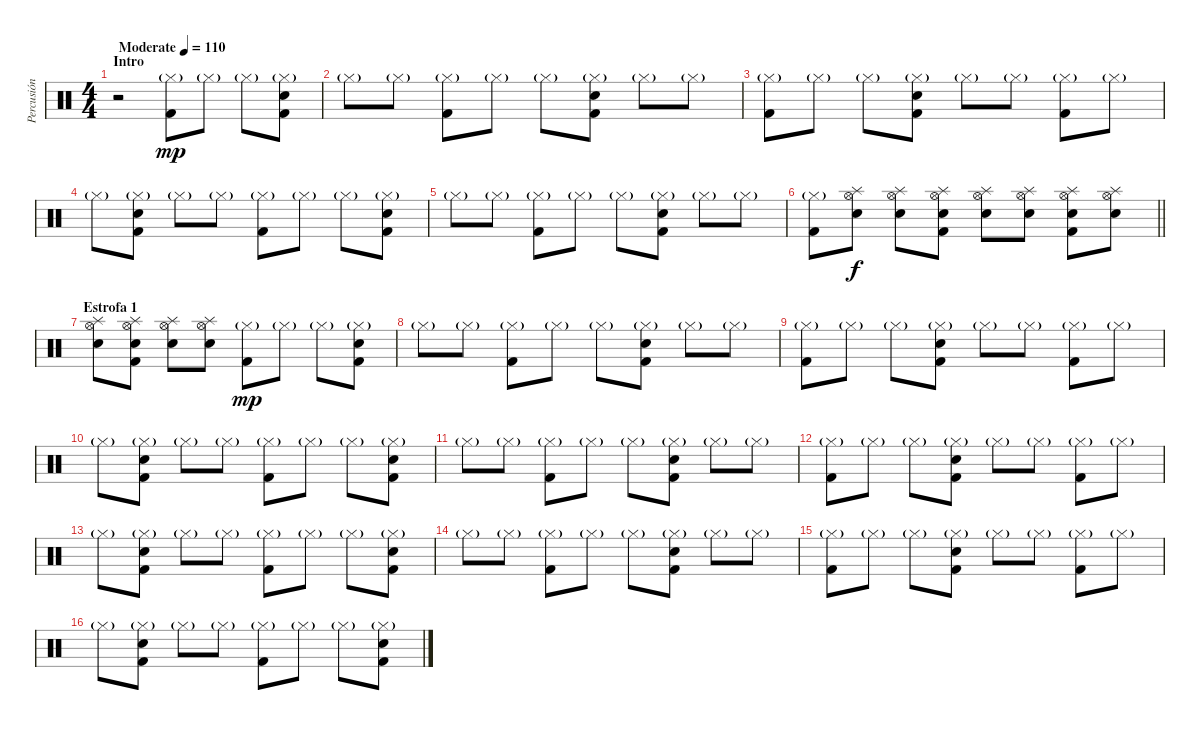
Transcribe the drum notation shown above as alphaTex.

\track ("Percusión" "Percusión") {instrument percussion}
\staff {score}
\articulation defaults
\ts (4 4)
\section ("" "Intro")
\tempo (110 "Moderate")
\clef neutral
\ks c
r.2{dy mp} ("Hi-Hat (closed)"{g} "Kick (hit) 2").8 "Hi-Hat (closed)"{g}.8 "Hi-Hat (closed)"{g}.8 ("Hi-Hat (closed)"{g} "Kick (hit) 2" "Snare (hit) 2").8 |
"Hi-Hat (closed)"{g}.8 "Hi-Hat (closed)"{g}.8 ("Hi-Hat (closed)"{g} "Kick (hit) 2").8 "Hi-Hat (closed)"{g}.8 "Hi-Hat (closed)"{g}.8 ("Hi-Hat (closed)"{g} "Kick (hit) 2" "Snare (hit) 2").8 "Hi-Hat (closed)"{g}.8 "Hi-Hat (closed)"{g}.8 |
("Hi-Hat (closed)"{g} "Kick (hit) 2").8 "Hi-Hat (closed)"{g}.8 "Hi-Hat (closed)"{g}.8 ("Hi-Hat (closed)"{g} "Kick (hit) 2" "Snare (hit) 2").8 "Hi-Hat (closed)"{g}.8 "Hi-Hat (closed)"{g}.8 ("Hi-Hat (closed)"{g} "Kick (hit) 2").8 "Hi-Hat (closed)"{g}.8 |
"Hi-Hat (closed)"{g}.8 ("Hi-Hat (closed)"{g} "Kick (hit) 2" "Snare (hit) 2").8 "Hi-Hat (closed)"{g}.8 "Hi-Hat (closed)"{g}.8 ("Hi-Hat (closed)"{g} "Kick (hit) 2").8 "Hi-Hat (closed)"{g}.8 "Hi-Hat (closed)"{g}.8 ("Hi-Hat (closed)"{g} "Kick (hit) 2" "Snare (hit) 2").8 |
"Hi-Hat (closed)"{g}.8 "Hi-Hat (closed)"{g}.8 ("Hi-Hat (closed)"{g} "Kick (hit) 2").8 "Hi-Hat (closed)"{g}.8 "Hi-Hat (closed)"{g}.8 ("Hi-Hat (closed)"{g} "Kick (hit) 2" "Snare (hit) 2").8 "Hi-Hat (closed)"{g}.8 "Hi-Hat (closed)"{g}.8 |
\barLineRight lightlight
("Hi-Hat (closed)"{g} "Kick (hit) 2").8 ("Hi-Hat (open)" "Splash (hit)" "Snare (hit) 2").8{dy f} ("Hi-Hat (open)" "Splash (hit)" "Snare (hit) 2").8 ("Hi-Hat (open)" "Kick (hit) 2" "Splash (hit)" "Snare (hit) 2").8 ("Hi-Hat (open)" "Splash (hit)" "Snare (hit) 2").8 ("Hi-Hat (open)" "Splash (hit)" "Snare (hit) 2").8 ("Hi-Hat (open)" "Kick (hit) 2" "Splash (hit)" "Snare (hit) 2").8 ("Hi-Hat (open)" "Splash (hit)" "Snare (hit) 2").8 |
\section ("" "Estrofa 1")
("Hi-Hat (open)" "Splash (hit)" "Snare (hit) 2").8 ("Hi-Hat (open)" "Kick (hit) 2" "Splash (hit)" "Snare (hit) 2").8 ("Hi-Hat (open)" "Splash (hit)" "Snare (hit) 2").8 ("Hi-Hat (open)" "Splash (hit)" "Snare (hit) 2").8 ("Hi-Hat (closed)"{g} "Kick (hit) 2").8{dy mp} "Hi-Hat (closed)"{g}.8 "Hi-Hat (closed)"{g}.8 ("Hi-Hat (closed)"{g} "Kick (hit) 2" "Snare (hit) 2").8 |
"Hi-Hat (closed)"{g}.8 "Hi-Hat (closed)"{g}.8 ("Hi-Hat (closed)"{g} "Kick (hit) 2").8 "Hi-Hat (closed)"{g}.8 "Hi-Hat (closed)"{g}.8 ("Hi-Hat (closed)"{g} "Kick (hit) 2" "Snare (hit) 2").8 "Hi-Hat (closed)"{g}.8 "Hi-Hat (closed)"{g}.8 |
("Hi-Hat (closed)"{g} "Kick (hit) 2").8 "Hi-Hat (closed)"{g}.8 "Hi-Hat (closed)"{g}.8 ("Hi-Hat (closed)"{g} "Kick (hit) 2" "Snare (hit) 2").8 "Hi-Hat (closed)"{g}.8 "Hi-Hat (closed)"{g}.8 ("Hi-Hat (closed)"{g} "Kick (hit) 2").8 "Hi-Hat (closed)"{g}.8 |
"Hi-Hat (closed)"{g}.8 ("Hi-Hat (closed)"{g} "Kick (hit) 2" "Snare (hit) 2").8 "Hi-Hat (closed)"{g}.8 "Hi-Hat (closed)"{g}.8 ("Hi-Hat (closed)"{g} "Kick (hit) 2").8 "Hi-Hat (closed)"{g}.8 "Hi-Hat (closed)"{g}.8 ("Hi-Hat (closed)"{g} "Kick (hit) 2" "Snare (hit) 2").8 |
"Hi-Hat (closed)"{g}.8 "Hi-Hat (closed)"{g}.8 ("Hi-Hat (closed)"{g} "Kick (hit) 2").8 "Hi-Hat (closed)"{g}.8 "Hi-Hat (closed)"{g}.8 ("Hi-Hat (closed)"{g} "Kick (hit) 2" "Snare (hit) 2").8 "Hi-Hat (closed)"{g}.8 "Hi-Hat (closed)"{g}.8 |
("Hi-Hat (closed)"{g} "Kick (hit) 2").8 "Hi-Hat (closed)"{g}.8 "Hi-Hat (closed)"{g}.8 ("Hi-Hat (closed)"{g} "Kick (hit) 2" "Snare (hit) 2").8 "Hi-Hat (closed)"{g}.8 "Hi-Hat (closed)"{g}.8 ("Hi-Hat (closed)"{g} "Kick (hit) 2").8 "Hi-Hat (closed)"{g}.8 |
"Hi-Hat (closed)"{g}.8 ("Hi-Hat (closed)"{g} "Kick (hit) 2" "Snare (hit) 2").8 "Hi-Hat (closed)"{g}.8 "Hi-Hat (closed)"{g}.8 ("Hi-Hat (closed)"{g} "Kick (hit) 2").8 "Hi-Hat (closed)"{g}.8 "Hi-Hat (closed)"{g}.8 ("Hi-Hat (closed)"{g} "Kick (hit) 2" "Snare (hit) 2").8 |
"Hi-Hat (closed)"{g}.8 "Hi-Hat (closed)"{g}.8 ("Hi-Hat (closed)"{g} "Kick (hit) 2").8 "Hi-Hat (closed)"{g}.8 "Hi-Hat (closed)"{g}.8 ("Hi-Hat (closed)"{g} "Kick (hit) 2" "Snare (hit) 2").8 "Hi-Hat (closed)"{g}.8 "Hi-Hat (closed)"{g}.8 |
("Hi-Hat (closed)"{g} "Kick (hit) 2").8 "Hi-Hat (closed)"{g}.8 "Hi-Hat (closed)"{g}.8 ("Hi-Hat (closed)"{g} "Kick (hit) 2" "Snare (hit) 2").8 "Hi-Hat (closed)"{g}.8 "Hi-Hat (closed)"{g}.8 ("Hi-Hat (closed)"{g} "Kick (hit) 2").8 "Hi-Hat (closed)"{g}.8 |
"Hi-Hat (closed)"{g}.8 ("Hi-Hat (closed)"{g} "Kick (hit) 2" "Snare (hit) 2").8 "Hi-Hat (closed)"{g}.8 "Hi-Hat (closed)"{g}.8 ("Hi-Hat (closed)"{g} "Kick (hit) 2").8 "Hi-Hat (closed)"{g}.8 "Hi-Hat (closed)"{g}.8 ("Hi-Hat (closed)"{g} "Kick (hit) 2" "Snare (hit) 2").8
